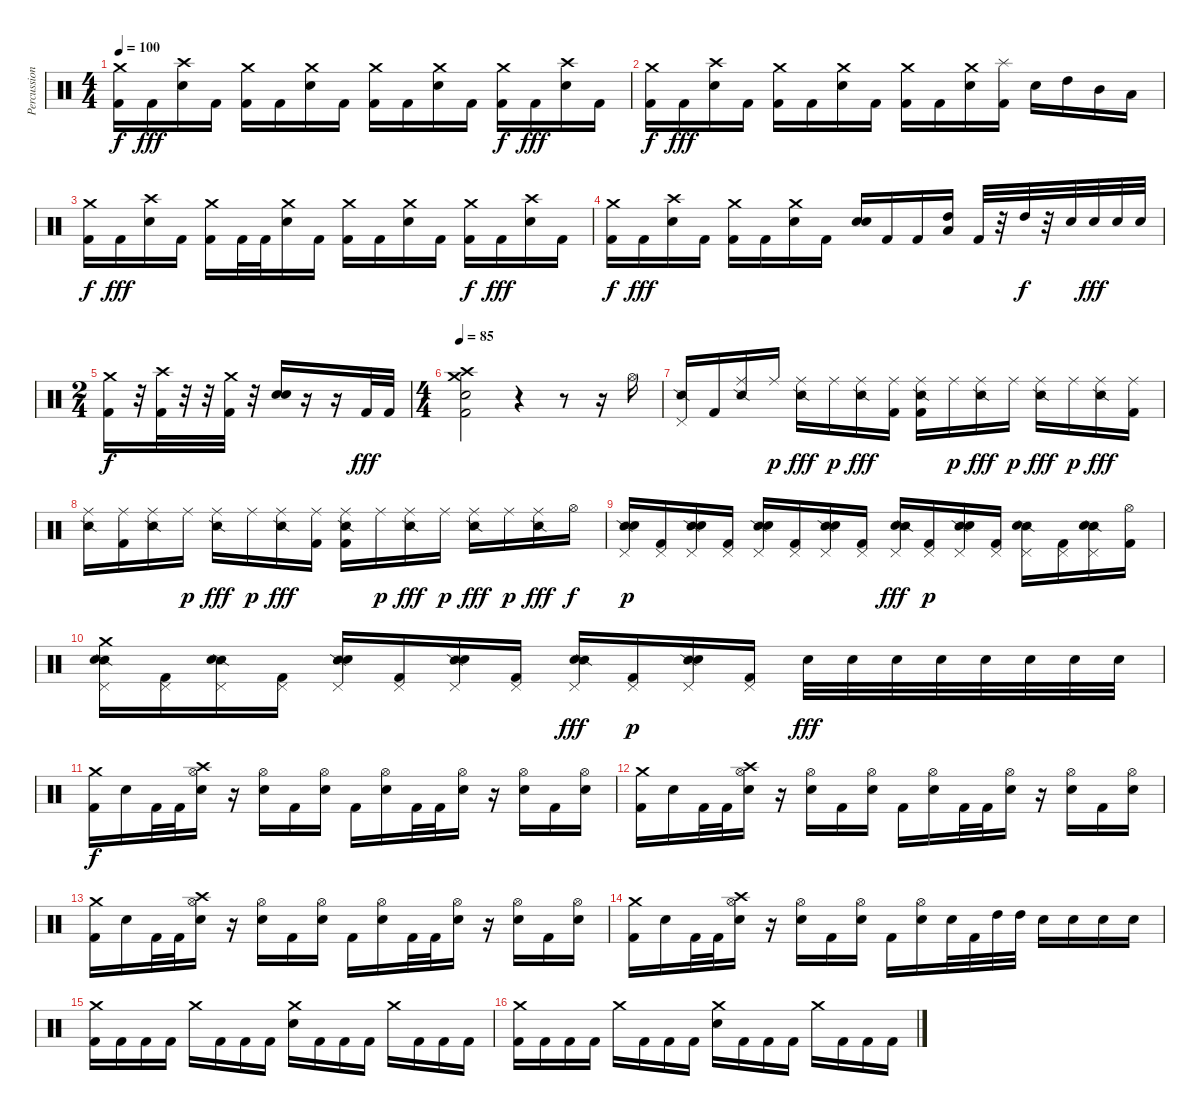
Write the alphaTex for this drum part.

\track ("Percussioni" "Percussion") {instrument percussion}
\staff {score}
\articulation defaults
\ts (4 4)
\tempo 100
\clef neutral
\ks c
("Crash medium (hit)" "Kick (hit) 2").16{dy f} "Kick (hit) 2".16{dy fff} ("Crash high (hit)" "Electric Snare (hit)").16 "Kick (hit) 2".16 ("Crash medium (hit)" "Kick (hit) 2").16 "Kick (hit) 2".16 ("Crash medium (hit)" "Electric Snare (hit)").16 "Kick (hit) 2".16 ("Crash medium (hit)" "Kick (hit) 2").16 "Kick (hit) 2".16 ("Crash medium (hit)" "Electric Snare (hit)").16 "Kick (hit) 2".16 ("Crash medium (hit)" "Kick (hit) 2").16{dy f} "Kick (hit) 2".16{dy fff} ("Crash high (hit)" "Electric Snare (hit)").16 "Kick (hit) 2".16 |
("Crash medium (hit)" "Kick (hit) 2").16{dy f} "Kick (hit) 2".16{dy fff} ("Crash high (hit)" "Electric Snare (hit)").16 "Kick (hit) 2".16 ("Crash medium (hit)" "Kick (hit) 2").16 "Kick (hit) 2".16 ("Crash medium (hit)" "Electric Snare (hit)").16 "Kick (hit) 2".16 ("Crash medium (hit)" "Kick (hit) 2").16 "Kick (hit) 2".16 ("Crash medium (hit)" "Electric Snare (hit)").16 ("Splash (hit)" "Kick (hit) 2").16 "Electric Snare (hit)".16 "High Tom (hit)".16 "Mid Tom (hit)".16 "Low Tom (hit)".16 |
("Crash medium (hit)" "Kick (hit) 2").16{dy f} "Kick (hit) 2".16{dy fff} ("Crash high (hit)" "Electric Snare (hit)").16 "Kick (hit) 2".16 ("Crash medium (hit)" "Kick (hit) 2").16 "Kick (hit) 2".32 "Kick (hit) 2".32 ("Crash medium (hit)" "Electric Snare (hit)").16 "Kick (hit) 2".16 ("Crash medium (hit)" "Kick (hit) 2").16 "Kick (hit) 2".16 ("Crash medium (hit)" "Electric Snare (hit)").16 "Kick (hit) 2".16 ("Crash medium (hit)" "Kick (hit) 2").16{dy f} "Kick (hit) 2".16{dy fff} ("Crash high (hit)" "Electric Snare (hit)").16 "Kick (hit) 2".16 |
("Crash medium (hit)" "Kick (hit) 2").16{dy f} "Kick (hit) 2".16{dy fff} ("Crash high (hit)" "Electric Snare (hit)").16 "Kick (hit) 2".16 ("Crash medium (hit)" "Kick (hit) 2").16 "Kick (hit) 2".16 ("Crash medium (hit)" "Electric Snare (hit)").16 "Kick (hit) 2".16 ("Electric Snare (hit)" "Electric Snare (hit)").16{bd 240} "Kick (hit) 2".16 "Kick (hit) 2".16 ("High Tom (hit)" "Low Tom (hit)").16{bd 240} "Kick (hit) 2".32 r.32 "High Tom (hit)".32{dy f} r.32 "Electric Snare (hit)".32 "Electric Snare (hit)".32{dy fff} "Electric Snare (hit)".32 "Electric Snare (hit)".32 |
\ts (2 4)
("Crash medium (hit)" "Kick (hit) 2").16{dy f} r.32 ("Crash high (hit)" "Kick (hit) 2").32 r.32 r.32 ("Crash medium (hit)" "Kick (hit) 2").32 r.32 ("Electric Snare (hit)" "Electric Snare (hit)").16{bd 240} r.16 r.16 "Kick (hit) 2".32{dy fff} "Kick (hit) 2".32 |
\ts (4 4)
\tempo 85
("Crash medium (hit)" "Crash high (hit)" "Electric Snare (hit)" "Kick (hit) 2").2 r.4 r.8 r.16 "Hi-Hat (open)".16 |
("Pedal Hi-Hat (hit)" "Snare (side stick) 2").16 "Kick (hit) 2".16 ("Ride (middle)" "Snare (side stick) 2").16 "Ride (middle)".16{dy p} ("Ride (middle)" "Snare (side stick) 2").16{dy fff} "Ride (middle)".16{dy p} ("Ride (middle)" "Snare (side stick) 2").16{dy fff} ("Ride (middle)" "Kick (hit) 2").16 ("Ride (middle)" "Snare (side stick) 2" "Kick (hit) 2").16 "Ride (middle)".16{dy p} ("Ride (middle)" "Snare (side stick) 2").16{dy fff} "Ride (middle)".16{dy p} ("Ride (middle)" "Snare (side stick) 2").16{dy fff} "Ride (middle)".16{dy p} ("Ride (middle)" "Snare (side stick) 2").16{dy fff} ("Ride (middle)" "Kick (hit) 2").16 |
("Ride (middle)" "Snare (side stick) 2").16 ("Ride (middle)" "Kick (hit) 2").16 ("Ride (middle)" "Snare (side stick) 2").16 "Ride (middle)".16{dy p} ("Ride (middle)" "Snare (side stick) 2").16{dy fff} "Ride (middle)".16{dy p} ("Ride (middle)" "Snare (side stick) 2").16{dy fff} ("Ride (middle)" "Kick (hit) 2").16 ("Ride (middle)" "Snare (side stick) 2" "Kick (hit) 2").16 "Ride (middle)".16{dy p} ("Ride (middle)" "Snare (side stick) 2").16{dy fff} "Ride (middle)".16{dy p} ("Ride (middle)" "Snare (side stick) 2").16{dy fff} "Ride (middle)".16{dy p} ("Ride (middle)" "Snare (side stick) 2").16{dy fff} "Hi-Hat (open)".16{dy f} |
("Pedal Hi-Hat (hit)" "Snare (side stick) 2" "Electric Snare (hit)").16{dy p} ("Pedal Hi-Hat (hit)" "Kick (hit) 2").16 ("Pedal Hi-Hat (hit)" "Snare (side stick) 2" "Electric Snare (hit)").16 ("Pedal Hi-Hat (hit)" "Kick (hit) 2").16 ("Pedal Hi-Hat (hit)" "Snare (side stick) 2" "Electric Snare (hit)").16 ("Pedal Hi-Hat (hit)" "Kick (hit) 2").16 ("Pedal Hi-Hat (hit)" "Snare (side stick) 2" "Electric Snare (hit)").16 ("Pedal Hi-Hat (hit)" "Kick (hit) 2").16 ("Pedal Hi-Hat (hit)" "Electric Snare (hit)" "Snare (side stick) 2").16{dy fff} ("Pedal Hi-Hat (hit)" "Kick (hit) 2").16{dy p} ("Pedal Hi-Hat (hit)" "Snare (side stick) 2" "Electric Snare (hit)").16 ("Pedal Hi-Hat (hit)" "Kick (hit) 2").16 ("Pedal Hi-Hat (hit)" "Snare (side stick) 2" "Electric Snare (hit)").16 ("Pedal Hi-Hat (hit)" "Kick (hit) 2").16 ("Pedal Hi-Hat (hit)" "Snare (side stick) 2" "Electric Snare (hit)").16 ("Hi-Hat (open)" "Kick (hit) 2").16 |
("Crash medium (hit)" "Pedal Hi-Hat (hit)" "Snare (side stick) 2" "Electric Snare (hit)").16 ("Pedal Hi-Hat (hit)" "Kick (hit) 2").16 ("Pedal Hi-Hat (hit)" "Snare (side stick) 2" "Electric Snare (hit)").16 ("Pedal Hi-Hat (hit)" "Kick (hit) 2").16 ("Pedal Hi-Hat (hit)" "Snare (side stick) 2" "Electric Snare (hit)").16 ("Pedal Hi-Hat (hit)" "Kick (hit) 2").16 ("Pedal Hi-Hat (hit)" "Snare (side stick) 2" "Electric Snare (hit)").16 ("Pedal Hi-Hat (hit)" "Kick (hit) 2").16 ("Pedal Hi-Hat (hit)" "Electric Snare (hit)" "Snare (side stick) 2").16{dy fff} ("Pedal Hi-Hat (hit)" "Kick (hit) 2").16{dy p} ("Pedal Hi-Hat (hit)" "Snare (side stick) 2" "Electric Snare (hit)").16 ("Pedal Hi-Hat (hit)" "Kick (hit) 2").16 "Electric Snare (hit)".32{dy fff} "Electric Snare (hit)".32 "Electric Snare (hit)".32 "Electric Snare (hit)".32 "Electric Snare (hit)".32 "Electric Snare (hit)".32 "Electric Snare (hit)".32 "Electric Snare (hit)".32 |
("Crash medium (hit)" "Kick (hit) 2").16{dy f} "Electric Snare (hit)".16 "Kick (hit) 2".32 "Kick (hit) 2".32 ("Crash high (hit)" "Hi-Hat (open)" "Electric Snare (hit)").16 r.16 ("Hi-Hat (open)" "Electric Snare (hit)").16 "Kick (hit) 2".16 ("Hi-Hat (open)" "Electric Snare (hit)").16 "Kick (hit) 2".16 ("Hi-Hat (open)" "Electric Snare (hit)").16 "Kick (hit) 2".32 "Kick (hit) 2".32 ("Hi-Hat (open)" "Electric Snare (hit)").16 r.16 ("Hi-Hat (open)" "Electric Snare (hit)").16 "Kick (hit) 2".16 ("Hi-Hat (open)" "Electric Snare (hit)").16 |
("Crash medium (hit)" "Kick (hit) 2").16 "Electric Snare (hit)".16 "Kick (hit) 2".32 "Kick (hit) 2".32 ("Crash high (hit)" "Hi-Hat (open)" "Electric Snare (hit)").16 r.16 ("Hi-Hat (open)" "Electric Snare (hit)").16 "Kick (hit) 2".16 ("Hi-Hat (open)" "Electric Snare (hit)").16 "Kick (hit) 2".16 ("Hi-Hat (open)" "Electric Snare (hit)").16 "Kick (hit) 2".32 "Kick (hit) 2".32 ("Hi-Hat (open)" "Electric Snare (hit)").16 r.16 ("Hi-Hat (open)" "Electric Snare (hit)").16 "Kick (hit) 2".16 ("Hi-Hat (open)" "Electric Snare (hit)").16 |
("Crash medium (hit)" "Kick (hit) 2").16 "Electric Snare (hit)".16 "Kick (hit) 2".32 "Kick (hit) 2".32 ("Crash high (hit)" "Hi-Hat (open)" "Electric Snare (hit)").16 r.16 ("Hi-Hat (open)" "Electric Snare (hit)").16 "Kick (hit) 2".16 ("Hi-Hat (open)" "Electric Snare (hit)").16 "Kick (hit) 2".16 ("Hi-Hat (open)" "Electric Snare (hit)").16 "Kick (hit) 2".32 "Kick (hit) 2".32 ("Hi-Hat (open)" "Electric Snare (hit)").16 r.16 ("Hi-Hat (open)" "Electric Snare (hit)").16 "Kick (hit) 2".16 ("Hi-Hat (open)" "Electric Snare (hit)").16 |
("Crash medium (hit)" "Kick (hit) 2").16 "Electric Snare (hit)".16 "Kick (hit) 2".32 "Kick (hit) 2".32 ("Crash high (hit)" "Hi-Hat (open)" "Electric Snare (hit)").16 r.16 ("Hi-Hat (open)" "Electric Snare (hit)").16 "Kick (hit) 2".16 ("Hi-Hat (open)" "Electric Snare (hit)").16 "Kick (hit) 2".16 ("Hi-Hat (open)" "Electric Snare (hit)").16 "Electric Snare (hit)".32 "Kick (hit) 2".32 "High Tom (hit)".32 "High Tom (hit)".32 "Electric Snare (hit)".16 "Electric Snare (hit)".16 "Electric Snare (hit)".16 "Electric Snare (hit)".16 |
("Crash medium (hit)" "Kick (hit) 2").16 "Kick (hit) 2".16 "Kick (hit) 2".16 "Kick (hit) 2".16 "Crash medium (hit)".16 "Kick (hit) 2".16 "Kick (hit) 2".16 "Kick (hit) 2".16 ("Crash medium (hit)" "Electric Snare (hit)").16 "Kick (hit) 2".16 "Kick (hit) 2".16 "Kick (hit) 2".16 "Crash medium (hit)".16 "Kick (hit) 2".16 "Kick (hit) 2".16 "Kick (hit) 2".16 |
("Crash medium (hit)" "Kick (hit) 2").16 "Kick (hit) 2".16 "Kick (hit) 2".16 "Kick (hit) 2".16 "Crash medium (hit)".16 "Kick (hit) 2".16 "Kick (hit) 2".16 "Kick (hit) 2".16 ("Crash medium (hit)" "Electric Snare (hit)").16 "Kick (hit) 2".16 "Kick (hit) 2".16 "Kick (hit) 2".16 "Crash medium (hit)".16 "Kick (hit) 2".16 "Kick (hit) 2".16 "Kick (hit) 2".16
